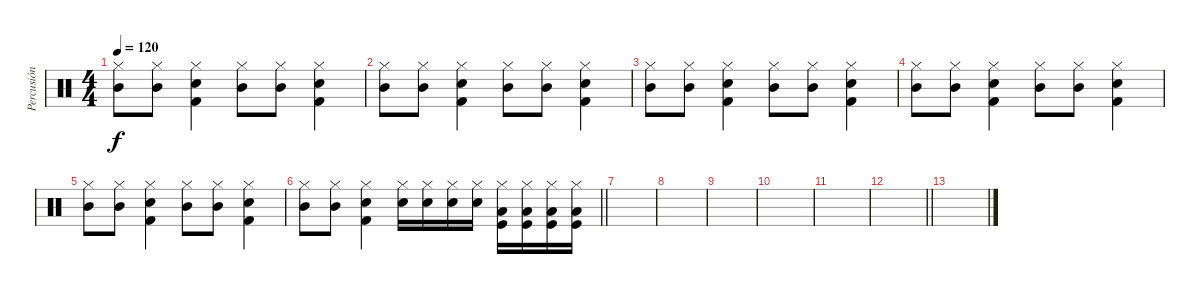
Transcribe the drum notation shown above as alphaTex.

\track ("Percusión" "Percusión") {instrument percussion}
\staff {score}
\articulation defaults
\ts (4 4)
\tempo 120
\clef neutral
\ks c
("Hi-Hat (closed)" "Mid Tom (hit)").8{dy f} ("Hi-Hat (closed)" "Mid Tom (hit)").8 ("Hi-Hat (closed)" "Snare (hit) 2" "Kick (hit) 2").4 ("Hi-Hat (closed)" "Mid Tom (hit)").8 ("Hi-Hat (closed)" "Mid Tom (hit)").8 ("Hi-Hat (closed)" "Snare (hit) 2" "Kick (hit) 2").4 |
("Hi-Hat (closed)" "Mid Tom (hit)").8 ("Hi-Hat (closed)" "Mid Tom (hit)").8 ("Hi-Hat (closed)" "Snare (hit) 2" "Kick (hit) 2").4 ("Hi-Hat (closed)" "Mid Tom (hit)").8 ("Hi-Hat (closed)" "Mid Tom (hit)").8 ("Hi-Hat (closed)" "Snare (hit) 2" "Kick (hit) 2").4 |
("Hi-Hat (closed)" "Mid Tom (hit)").8 ("Hi-Hat (closed)" "Mid Tom (hit)").8 ("Hi-Hat (closed)" "Snare (hit) 2" "Kick (hit) 2").4 ("Hi-Hat (closed)" "Mid Tom (hit)").8 ("Hi-Hat (closed)" "Mid Tom (hit)").8 ("Hi-Hat (closed)" "Snare (hit) 2" "Kick (hit) 2").4 |
("Hi-Hat (closed)" "Mid Tom (hit)").8 ("Hi-Hat (closed)" "Mid Tom (hit)").8 ("Hi-Hat (closed)" "Snare (hit) 2" "Kick (hit) 2").4 ("Hi-Hat (closed)" "Mid Tom (hit)").8 ("Hi-Hat (closed)" "Mid Tom (hit)").8 ("Hi-Hat (closed)" "Snare (hit) 2" "Kick (hit) 2").4 |
("Hi-Hat (closed)" "Mid Tom (hit)").8 ("Hi-Hat (closed)" "Mid Tom (hit)").8 ("Hi-Hat (closed)" "Snare (hit) 2" "Kick (hit) 2").4 ("Hi-Hat (closed)" "Mid Tom (hit)").8 ("Hi-Hat (closed)" "Mid Tom (hit)").8 ("Hi-Hat (closed)" "Snare (hit) 2" "Kick (hit) 2").4 |
\barLineRight lightlight
("Hi-Hat (closed)" "Mid Tom (hit)").8{volume 10} ("Hi-Hat (closed)" "Mid Tom (hit)").8 ("Hi-Hat (closed)" "Snare (hit) 2" "Kick (hit) 2").4 ("Hi-Hat (closed)" "Snare (hit) 2").16 ("Hi-Hat (closed)" "Snare (hit) 2").16 ("Hi-Hat (closed)" "Snare (hit) 2").16 ("Hi-Hat (closed)" "Snare (hit) 2").16 ("Hi-Hat (closed)" "Low Floor Tom (hit)" "Kick (hit)").16 ("Hi-Hat (closed)" "Low Floor Tom (hit)" "Kick (hit)").16 ("Hi-Hat (closed)" "Low Floor Tom (hit)" "Kick (hit)").16 ("Hi-Hat (closed)" "Low Floor Tom (hit)" "Kick (hit)").16 |
\section ("" "")
|
|
|
|
|
\barLineRight lightlight
|
\section ("" "")
